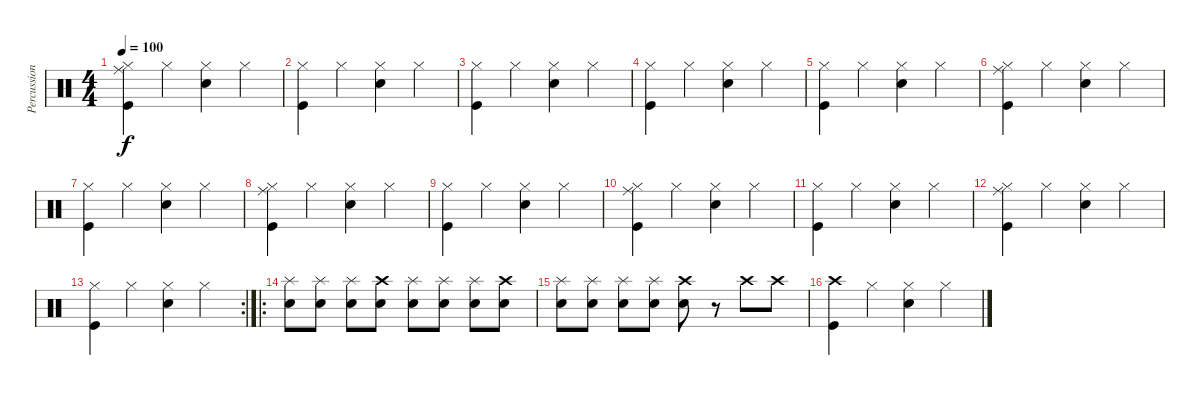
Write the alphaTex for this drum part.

\track ("Percussion" "Percussion") {instrument percussion}
\staff {score}
\articulation defaults
\ts (4 4)
\tempo 100
\clef neutral
\ks c
("Hi-Hat (closed)" "Kick (hit)" "Ride (middle)").4{dy f} "Hi-Hat (closed)".4 ("Hi-Hat (closed)" "Electric Snare (hit)").4 "Hi-Hat (closed)".4 |
("Hi-Hat (closed)" "Kick (hit)").4 "Hi-Hat (closed)".4 ("Hi-Hat (closed)" "Electric Snare (hit)").4 "Hi-Hat (closed)".4 |
("Hi-Hat (closed)" "Kick (hit)").4 "Hi-Hat (closed)".4 ("Hi-Hat (closed)" "Electric Snare (hit)").4 "Hi-Hat (closed)".4 |
("Hi-Hat (closed)" "Kick (hit)").4 "Hi-Hat (closed)".4 ("Hi-Hat (closed)" "Electric Snare (hit)").4 "Hi-Hat (closed)".4 |
("Hi-Hat (closed)" "Kick (hit)").4 "Hi-Hat (closed)".4 ("Hi-Hat (closed)" "Electric Snare (hit)").4 "Hi-Hat (closed)".4 |
("Hi-Hat (closed)" "Kick (hit)" "Ride (middle)").4 "Hi-Hat (closed)".4 ("Hi-Hat (closed)" "Electric Snare (hit)").4 "Hi-Hat (closed)".4 |
("Hi-Hat (closed)" "Kick (hit)").4 "Hi-Hat (closed)".4 ("Hi-Hat (closed)" "Electric Snare (hit)").4 "Hi-Hat (closed)".4 |
("Hi-Hat (closed)" "Kick (hit)" "Ride (middle)").4 "Hi-Hat (closed)".4 ("Hi-Hat (closed)" "Electric Snare (hit)").4 "Hi-Hat (closed)".4 |
("Hi-Hat (closed)" "Kick (hit)").4 "Hi-Hat (closed)".4 ("Hi-Hat (closed)" "Electric Snare (hit)").4 "Hi-Hat (closed)".4 |
("Hi-Hat (closed)" "Kick (hit)" "Ride (middle)").4 "Hi-Hat (closed)".4 ("Hi-Hat (closed)" "Electric Snare (hit)").4 "Hi-Hat (closed)".4 |
("Hi-Hat (closed)" "Kick (hit)").4 "Hi-Hat (closed)".4 ("Hi-Hat (closed)" "Electric Snare (hit)").4 "Hi-Hat (closed)".4 |
("Hi-Hat (closed)" "Kick (hit)" "Ride (middle)").4 "Hi-Hat (closed)".4 ("Hi-Hat (closed)" "Electric Snare (hit)").4 "Hi-Hat (closed)".4 |
\rc 2
("Hi-Hat (closed)" "Kick (hit)").4 "Hi-Hat (closed)".4 ("Hi-Hat (closed)" "Electric Snare (hit)").4 "Hi-Hat (closed)".4 |
\ro
("Splash (hit)" "Electric Snare (hit)").8 ("Splash (hit)" "Electric Snare (hit)").8 ("Splash (hit)" "Electric Snare (hit)").8 ("Crash high (hit)" "Electric Snare (hit)").8 ("Splash (hit)" "Electric Snare (hit)").8 ("Splash (hit)" "Electric Snare (hit)").8 ("Splash (hit)" "Electric Snare (hit)").8 ("Crash high (hit)" "Electric Snare (hit)").8 |
("Splash (hit)" "Electric Snare (hit)").8 ("Splash (hit)" "Electric Snare (hit)").8 ("Splash (hit)" "Electric Snare (hit)").8 ("Splash (hit)" "Electric Snare (hit)").8 ("Crash high (hit)" "Electric Snare (hit)").8 r.8 "Crash high (hit)".8 "Crash high (hit)".8 |
("Crash high (hit)" "Kick (hit)").4 "Hi-Hat (closed)".4 ("Hi-Hat (closed)" "Electric Snare (hit)").4 "Hi-Hat (closed)".4
